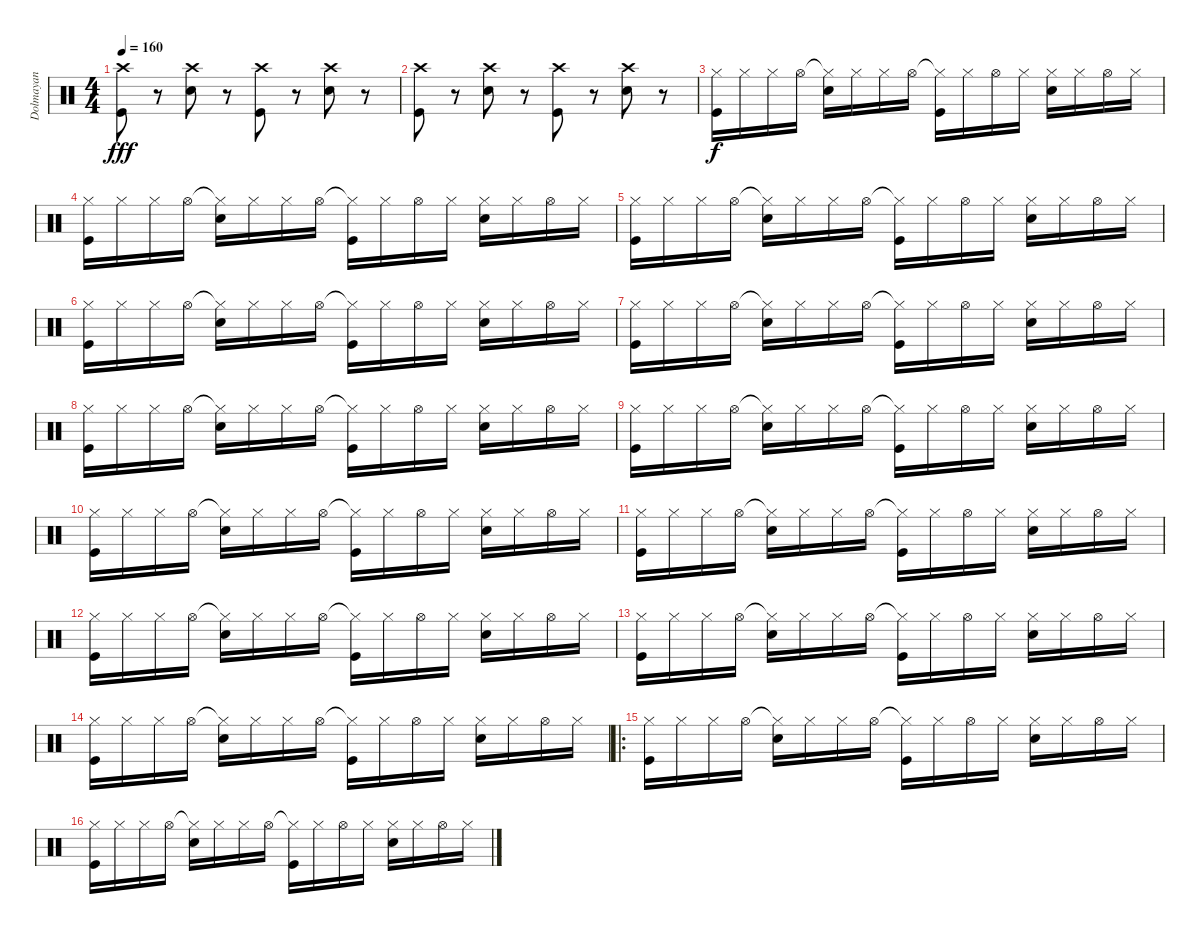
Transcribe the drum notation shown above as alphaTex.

\track ("Dolmayan" "Dolmayan") {instrument percussion}
\staff {score}
\articulation defaults
\ts (4 4)
\tempo 160
\clef neutral
\ks c
("Crash high (hit)" "Kick (hit)").8{dy fff} r.8 ("Crash high (hit)" "Electric Snare (hit)").8 r.8 ("Crash high (hit)" "Kick (hit)").8 r.8 ("Crash high (hit)" "Electric Snare (hit)").8 r.8 |
("Crash high (hit)" "Kick (hit)").8 r.8 ("Crash high (hit)" "Electric Snare (hit)").8 r.8 ("Crash high (hit)" "Kick (hit)").8 r.8 ("Crash high (hit)" "Electric Snare (hit)").8 r.8 |
("Hi-Hat (closed)" "Kick (hit)").16{dy f} "Hi-Hat (closed)".16 "Hi-Hat (closed)".16 "Hi-Hat (open)".16 ("Hi-Hat (closed)"{t} "Electric Snare (hit)").16 "Hi-Hat (closed)".16 "Hi-Hat (closed)".16 "Hi-Hat (open)".16 ("Hi-Hat (closed)"{t} "Kick (hit)").16 "Hi-Hat (closed)".16 "Hi-Hat (open)".16 "Hi-Hat (closed)".16 ("Hi-Hat (closed)" "Electric Snare (hit)").16 "Hi-Hat (closed)".16 "Hi-Hat (open)".16 "Hi-Hat (closed)".16 |
("Hi-Hat (closed)" "Kick (hit)").16 "Hi-Hat (closed)".16 "Hi-Hat (closed)".16 "Hi-Hat (open)".16 ("Hi-Hat (closed)"{t} "Electric Snare (hit)").16 "Hi-Hat (closed)".16 "Hi-Hat (closed)".16 "Hi-Hat (open)".16 ("Hi-Hat (closed)"{t} "Kick (hit)").16 "Hi-Hat (closed)".16 "Hi-Hat (open)".16 "Hi-Hat (closed)".16 ("Hi-Hat (closed)" "Electric Snare (hit)").16 "Hi-Hat (closed)".16 "Hi-Hat (open)".16 "Hi-Hat (closed)".16 |
("Hi-Hat (closed)" "Kick (hit)").16 "Hi-Hat (closed)".16 "Hi-Hat (closed)".16 "Hi-Hat (open)".16 ("Hi-Hat (closed)"{t} "Electric Snare (hit)").16 "Hi-Hat (closed)".16 "Hi-Hat (closed)".16 "Hi-Hat (open)".16 ("Hi-Hat (closed)"{t} "Kick (hit)").16 "Hi-Hat (closed)".16 "Hi-Hat (open)".16 "Hi-Hat (closed)".16 ("Hi-Hat (closed)" "Electric Snare (hit)").16 "Hi-Hat (closed)".16 "Hi-Hat (open)".16 "Hi-Hat (closed)".16 |
("Hi-Hat (closed)" "Kick (hit)").16 "Hi-Hat (closed)".16 "Hi-Hat (closed)".16 "Hi-Hat (open)".16 ("Hi-Hat (closed)"{t} "Electric Snare (hit)").16 "Hi-Hat (closed)".16 "Hi-Hat (closed)".16 "Hi-Hat (open)".16 ("Hi-Hat (closed)"{t} "Kick (hit)").16 "Hi-Hat (closed)".16 "Hi-Hat (open)".16 "Hi-Hat (closed)".16 ("Hi-Hat (closed)" "Electric Snare (hit)").16 "Hi-Hat (closed)".16 "Hi-Hat (open)".16 "Hi-Hat (closed)".16 |
("Hi-Hat (closed)" "Kick (hit)").16 "Hi-Hat (closed)".16 "Hi-Hat (closed)".16 "Hi-Hat (open)".16 ("Hi-Hat (closed)"{t} "Electric Snare (hit)").16 "Hi-Hat (closed)".16 "Hi-Hat (closed)".16 "Hi-Hat (open)".16 ("Hi-Hat (closed)"{t} "Kick (hit)").16 "Hi-Hat (closed)".16 "Hi-Hat (open)".16 "Hi-Hat (closed)".16 ("Hi-Hat (closed)" "Electric Snare (hit)").16 "Hi-Hat (closed)".16 "Hi-Hat (open)".16 "Hi-Hat (closed)".16 |
("Hi-Hat (closed)" "Kick (hit)").16 "Hi-Hat (closed)".16 "Hi-Hat (closed)".16 "Hi-Hat (open)".16 ("Hi-Hat (closed)"{t} "Electric Snare (hit)").16 "Hi-Hat (closed)".16 "Hi-Hat (closed)".16 "Hi-Hat (open)".16 ("Hi-Hat (closed)"{t} "Kick (hit)").16 "Hi-Hat (closed)".16 "Hi-Hat (open)".16 "Hi-Hat (closed)".16 ("Hi-Hat (closed)" "Electric Snare (hit)").16 "Hi-Hat (closed)".16 "Hi-Hat (open)".16 "Hi-Hat (closed)".16 |
("Hi-Hat (closed)" "Kick (hit)").16 "Hi-Hat (closed)".16 "Hi-Hat (closed)".16 "Hi-Hat (open)".16 ("Hi-Hat (closed)"{t} "Electric Snare (hit)").16 "Hi-Hat (closed)".16 "Hi-Hat (closed)".16 "Hi-Hat (open)".16 ("Hi-Hat (closed)"{t} "Kick (hit)").16 "Hi-Hat (closed)".16 "Hi-Hat (open)".16 "Hi-Hat (closed)".16 ("Hi-Hat (closed)" "Electric Snare (hit)").16 "Hi-Hat (closed)".16 "Hi-Hat (open)".16 "Hi-Hat (closed)".16 |
("Hi-Hat (closed)" "Kick (hit)").16 "Hi-Hat (closed)".16 "Hi-Hat (closed)".16 "Hi-Hat (open)".16 ("Hi-Hat (closed)"{t} "Electric Snare (hit)").16 "Hi-Hat (closed)".16 "Hi-Hat (closed)".16 "Hi-Hat (open)".16 ("Hi-Hat (closed)"{t} "Kick (hit)").16 "Hi-Hat (closed)".16 "Hi-Hat (open)".16 "Hi-Hat (closed)".16 ("Hi-Hat (closed)" "Electric Snare (hit)").16 "Hi-Hat (closed)".16 "Hi-Hat (open)".16 "Hi-Hat (closed)".16 |
("Hi-Hat (closed)" "Kick (hit)").16 "Hi-Hat (closed)".16 "Hi-Hat (closed)".16 "Hi-Hat (open)".16 ("Hi-Hat (closed)"{t} "Electric Snare (hit)").16 "Hi-Hat (closed)".16 "Hi-Hat (closed)".16 "Hi-Hat (open)".16 ("Hi-Hat (closed)"{t} "Kick (hit)").16 "Hi-Hat (closed)".16 "Hi-Hat (open)".16 "Hi-Hat (closed)".16 ("Hi-Hat (closed)" "Electric Snare (hit)").16 "Hi-Hat (closed)".16 "Hi-Hat (open)".16 "Hi-Hat (closed)".16 |
("Hi-Hat (closed)" "Kick (hit)").16 "Hi-Hat (closed)".16 "Hi-Hat (closed)".16 "Hi-Hat (open)".16 ("Hi-Hat (closed)"{t} "Electric Snare (hit)").16 "Hi-Hat (closed)".16 "Hi-Hat (closed)".16 "Hi-Hat (open)".16 ("Hi-Hat (closed)"{t} "Kick (hit)").16 "Hi-Hat (closed)".16 "Hi-Hat (open)".16 "Hi-Hat (closed)".16 ("Hi-Hat (closed)" "Electric Snare (hit)").16 "Hi-Hat (closed)".16 "Hi-Hat (open)".16 "Hi-Hat (closed)".16 |
("Hi-Hat (closed)" "Kick (hit)").16 "Hi-Hat (closed)".16 "Hi-Hat (closed)".16 "Hi-Hat (open)".16 ("Hi-Hat (closed)"{t} "Electric Snare (hit)").16 "Hi-Hat (closed)".16 "Hi-Hat (closed)".16 "Hi-Hat (open)".16 ("Hi-Hat (closed)"{t} "Kick (hit)").16 "Hi-Hat (closed)".16 "Hi-Hat (open)".16 "Hi-Hat (closed)".16 ("Hi-Hat (closed)" "Electric Snare (hit)").16 "Hi-Hat (closed)".16 "Hi-Hat (open)".16 "Hi-Hat (closed)".16 |
("Hi-Hat (closed)" "Kick (hit)").16 "Hi-Hat (closed)".16 "Hi-Hat (closed)".16 "Hi-Hat (open)".16 ("Hi-Hat (closed)"{t} "Electric Snare (hit)").16 "Hi-Hat (closed)".16 "Hi-Hat (closed)".16 "Hi-Hat (open)".16 ("Hi-Hat (closed)"{t} "Kick (hit)").16 "Hi-Hat (closed)".16 "Hi-Hat (open)".16 "Hi-Hat (closed)".16 ("Hi-Hat (closed)" "Electric Snare (hit)").16 "Hi-Hat (closed)".16 "Hi-Hat (open)".16 "Hi-Hat (closed)".16 |
\ro
("Hi-Hat (closed)" "Kick (hit)").16 "Hi-Hat (closed)".16 "Hi-Hat (closed)".16 "Hi-Hat (open)".16 ("Hi-Hat (closed)"{t} "Electric Snare (hit)").16 "Hi-Hat (closed)".16 "Hi-Hat (closed)".16 "Hi-Hat (open)".16 ("Hi-Hat (closed)"{t} "Kick (hit)").16 "Hi-Hat (closed)".16 "Hi-Hat (open)".16 "Hi-Hat (closed)".16 ("Hi-Hat (closed)" "Electric Snare (hit)").16 "Hi-Hat (closed)".16 "Hi-Hat (open)".16 "Hi-Hat (closed)".16 |
("Hi-Hat (closed)" "Kick (hit)").16 "Hi-Hat (closed)".16 "Hi-Hat (closed)".16 "Hi-Hat (open)".16 ("Hi-Hat (closed)"{t} "Electric Snare (hit)").16 "Hi-Hat (closed)".16 "Hi-Hat (closed)".16 "Hi-Hat (open)".16 ("Hi-Hat (closed)"{t} "Kick (hit)").16 "Hi-Hat (closed)".16 "Hi-Hat (open)".16 "Hi-Hat (closed)".16 ("Hi-Hat (closed)" "Electric Snare (hit)").16 "Hi-Hat (closed)".16 "Hi-Hat (open)".16 "Hi-Hat (closed)".16
